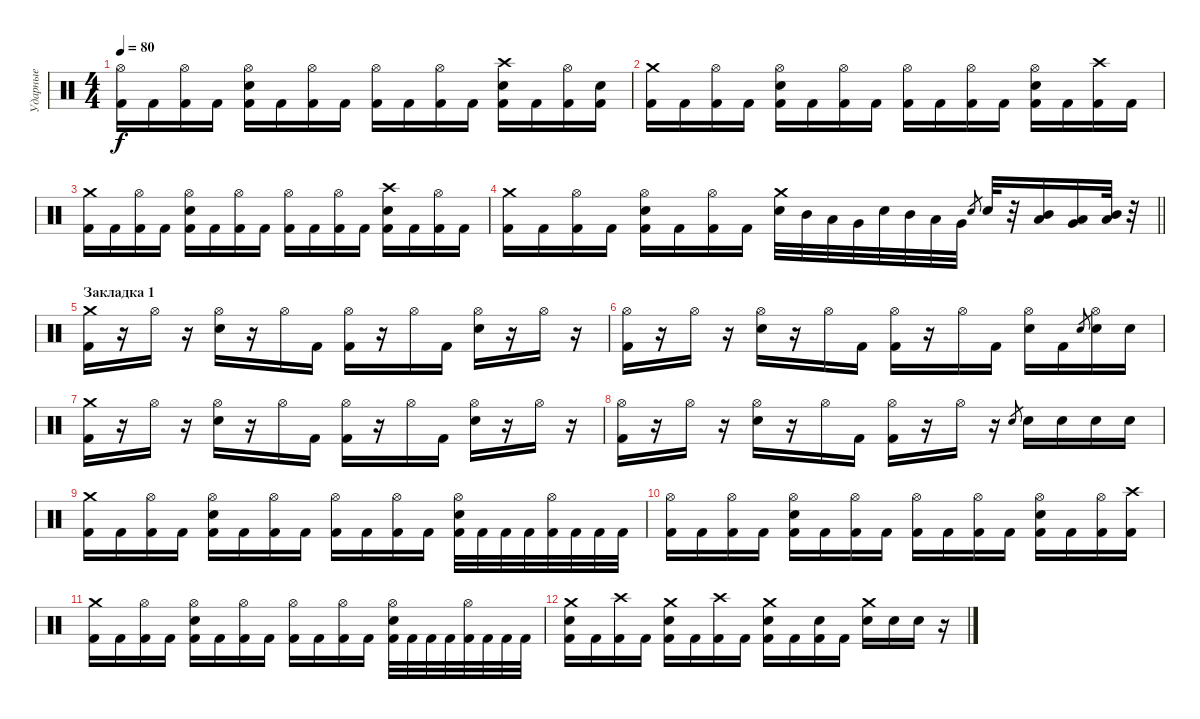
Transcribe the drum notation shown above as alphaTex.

\track ("Ударные" "Ударные") {instrument percussion}
\staff {score}
\articulation defaults
\ts (4 4)
\tempo 80
\clef neutral
\ks c
("Hi-Hat (open)" "Kick (hit) 2").16{dy f} "Kick (hit) 2".16 ("Hi-Hat (open)" "Kick (hit) 2").16 "Kick (hit) 2".16 ("Hi-Hat (open)" "Snare (hit) 2" "Kick (hit) 2").16 "Kick (hit) 2".16 ("Hi-Hat (open)" "Kick (hit) 2").16 "Kick (hit) 2".16 ("Hi-Hat (open)" "Kick (hit) 2").16 "Kick (hit) 2".16 ("Hi-Hat (open)" "Kick (hit) 2").16 "Kick (hit) 2".16 ("Crash high (hit)" "Snare (hit) 2" "Kick (hit) 2").16 "Kick (hit) 2".16 ("Hi-Hat (open)" "Kick (hit) 2").16 ("Snare (hit) 2" "Kick (hit) 2").16 |
("Crash medium (hit)" "Kick (hit) 2").16 "Kick (hit) 2".16 ("Hi-Hat (open)" "Kick (hit) 2").16 "Kick (hit) 2".16 ("Hi-Hat (open)" "Snare (hit) 2" "Kick (hit) 2").16 "Kick (hit) 2".16 ("Hi-Hat (open)" "Kick (hit) 2").16 "Kick (hit) 2".16 ("Hi-Hat (open)" "Kick (hit) 2").16 "Kick (hit) 2".16 ("Hi-Hat (open)" "Kick (hit) 2").16 "Kick (hit) 2".16 ("Hi-Hat (open)" "Snare (hit) 2" "Kick (hit) 2").16 "Kick (hit) 2".16 ("Crash high (hit)" "Kick (hit) 2").16 "Kick (hit) 2".16 |
("Crash medium (hit)" "Kick (hit) 2").16 "Kick (hit) 2".16 ("Hi-Hat (open)" "Kick (hit) 2").16 "Kick (hit) 2".16 ("Hi-Hat (open)" "Snare (hit) 2" "Kick (hit) 2").16 "Kick (hit) 2".16 ("Hi-Hat (open)" "Kick (hit) 2").16 "Kick (hit) 2".16 ("Hi-Hat (open)" "Kick (hit) 2").16 "Kick (hit) 2".16 ("Hi-Hat (open)" "Kick (hit) 2").16 "Kick (hit) 2".16 ("Crash high (hit)" "Snare (hit) 2" "Kick (hit) 2").16 "Kick (hit) 2".16 ("Hi-Hat (open)" "Kick (hit) 2").16 "Kick (hit) 2".16 |
\barLineRight lightlight
("Crash medium (hit)" "Kick (hit) 2").16 "Kick (hit) 2".16 ("Hi-Hat (open)" "Kick (hit) 2").16 "Kick (hit) 2".16 ("Hi-Hat (open)" "Snare (hit) 2" "Kick (hit) 2").16 "Kick (hit) 2".16 ("Hi-Hat (open)" "Kick (hit) 2").16 "Kick (hit) 2".16 ("Crash medium (hit)" "Snare (hit) 2").32 "Mid Tom (hit)".32 "Low Tom (hit)".32 "Very Low Tom (hit)".32 "Snare (hit) 2".32 "Mid Tom (hit)".32 "Low Tom (hit)".32 "Very Low Tom (hit)".32 "Snare (hit) 2".8{gr} "Snare (hit) 2".32 r.32 ("Mid Tom (hit)" "Low Tom (hit)").16 ("Very Low Tom (hit)" "Low Floor Tom (hit)").16 ("Mid Tom (hit)" "Low Tom (hit)").32 r.32 |
\section ("" "Закладка 1")
("Crash medium (hit)" "Kick (hit) 2").16 r.16 "Hi-Hat (open)".16 r.16 ("Hi-Hat (open)" "Snare (hit) 2").16 r.16 "Hi-Hat (open)".16 "Kick (hit) 2".16 ("Hi-Hat (open)" "Kick (hit) 2").16 r.16 "Hi-Hat (open)".16 "Kick (hit) 2".16 ("Hi-Hat (open)" "Snare (hit) 2").16 r.16 "Hi-Hat (open)".16 r.16 |
("Hi-Hat (open)" "Kick (hit) 2").16 r.16 "Hi-Hat (open)".16 r.16 ("Hi-Hat (open)" "Snare (hit) 2").16 r.16 "Hi-Hat (open)".16 "Kick (hit) 2".16 ("Hi-Hat (open)" "Kick (hit) 2").16 r.16 "Hi-Hat (open)".16 "Kick (hit) 2".16 ("Hi-Hat (open)" "Snare (hit) 2").16 "Kick (hit) 2".16 "Snare (hit) 2".8{gr} ("Hi-Hat (open)" "Snare (hit) 2").16 "Snare (hit) 2".16 |
("Crash medium (hit)" "Kick (hit) 2").16 r.16 "Hi-Hat (open)".16 r.16 ("Hi-Hat (open)" "Snare (hit) 2").16 r.16 "Hi-Hat (open)".16 "Kick (hit) 2".16 ("Hi-Hat (open)" "Kick (hit) 2").16 r.16 "Hi-Hat (open)".16 "Kick (hit) 2".16 ("Hi-Hat (open)" "Snare (hit) 2").16 r.16 "Hi-Hat (open)".16 r.16 |
("Hi-Hat (open)" "Kick (hit) 2").16 r.16 "Hi-Hat (open)".16 r.16 ("Hi-Hat (open)" "Snare (hit) 2").16 r.16 "Hi-Hat (open)".16 "Kick (hit) 2".16 ("Hi-Hat (open)" "Kick (hit) 2").16 r.16 "Hi-Hat (open)".16 r.16 "Snare (hit) 2".8{gr} "Snare (hit) 2".16 "Snare (hit) 2".16 "Snare (hit) 2".16 "Snare (hit) 2".16 |
("Crash medium (hit)" "Kick (hit) 2").16 "Kick (hit) 2".16 ("Hi-Hat (open)" "Kick (hit) 2").16 "Kick (hit) 2".16 ("Hi-Hat (open)" "Snare (hit) 2" "Kick (hit) 2").16 "Kick (hit) 2".16 ("Hi-Hat (open)" "Kick (hit) 2").16 "Kick (hit) 2".16 ("Hi-Hat (open)" "Kick (hit) 2").16 "Kick (hit) 2".16 ("Hi-Hat (open)" "Kick (hit) 2").16 "Kick (hit) 2".16 ("Hi-Hat (open)" "Snare (hit) 2" "Kick (hit) 2").32 "Kick (hit) 2".32 "Kick (hit) 2".32 "Kick (hit) 2".32 ("Hi-Hat (open)" "Kick (hit) 2").32 "Kick (hit) 2".32 "Kick (hit) 2".32 "Kick (hit) 2".32 |
("Hi-Hat (open)" "Kick (hit) 2").16 "Kick (hit) 2".16 ("Hi-Hat (open)" "Kick (hit) 2").16 "Kick (hit) 2".16 ("Hi-Hat (open)" "Snare (hit) 2" "Kick (hit) 2").16 "Kick (hit) 2".16 ("Hi-Hat (open)" "Kick (hit) 2").16 "Kick (hit) 2".16 ("Hi-Hat (open)" "Kick (hit) 2").16 "Kick (hit) 2".16 ("Hi-Hat (open)" "Kick (hit) 2").16 "Kick (hit) 2".16 ("Hi-Hat (open)" "Snare (hit) 2" "Kick (hit) 2").16 "Kick (hit) 2".16 ("Hi-Hat (open)" "Kick (hit) 2").16 ("Crash high (hit)" "Kick (hit) 2").16 |
("Crash medium (hit)" "Kick (hit) 2").16 "Kick (hit) 2".16 ("Hi-Hat (open)" "Kick (hit) 2").16 "Kick (hit) 2".16 ("Hi-Hat (open)" "Snare (hit) 2" "Kick (hit) 2").16 "Kick (hit) 2".16 ("Hi-Hat (open)" "Kick (hit) 2").16 "Kick (hit) 2".16 ("Hi-Hat (open)" "Kick (hit) 2").16 "Kick (hit) 2".16 ("Hi-Hat (open)" "Kick (hit) 2").16 "Kick (hit) 2".16 ("Hi-Hat (open)" "Snare (hit) 2" "Kick (hit) 2").32 "Kick (hit) 2".32 "Kick (hit) 2".32 "Kick (hit) 2".32 ("Hi-Hat (open)" "Kick (hit) 2").32 "Kick (hit) 2".32 "Kick (hit) 2".32 "Kick (hit) 2".32 |
("Crash medium (hit)" "Snare (hit) 2" "Kick (hit) 2").16 "Kick (hit) 2".16 ("Crash high (hit)" "Kick (hit) 2").16 "Kick (hit) 2".16 ("Crash medium (hit)" "Snare (hit) 2" "Kick (hit) 2").16 "Kick (hit) 2".16 ("Crash high (hit)" "Kick (hit) 2").16 "Kick (hit) 2".16 ("Crash medium (hit)" "Snare (hit) 2" "Kick (hit) 2").16 "Kick (hit) 2".16 ("Snare (hit) 2" "Kick (hit) 2").16 "Kick (hit) 2".16 ("Crash medium (hit)" "Snare (hit) 2").16 "Snare (hit) 2".16 "Snare (hit) 2".16 r.16
